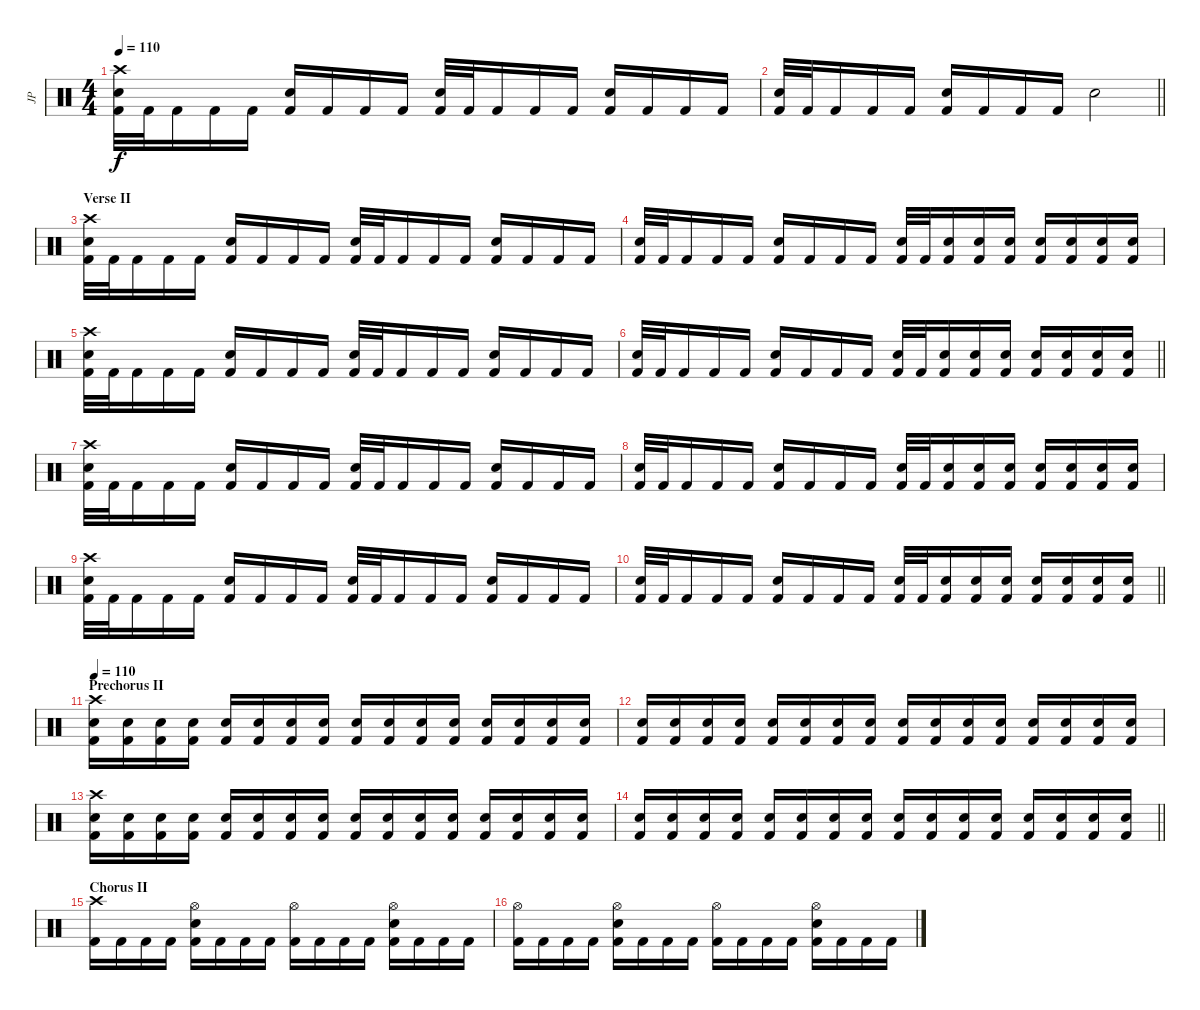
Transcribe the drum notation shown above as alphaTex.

\track ("JP" "JP") {instrument percussion}
\staff {score}
\articulation defaults
\ts (4 4)
\tempo 110
\clef neutral
\ks c
("Crash high (hit)" "Electric Snare (hit)" "Kick (hit) 2").32{dy f} "Kick (hit) 2".32 "Kick (hit) 2".16 "Kick (hit) 2".16 "Kick (hit) 2".16 ("Electric Snare (hit)" "Kick (hit) 2").16 "Kick (hit) 2".16 "Kick (hit) 2".16 "Kick (hit) 2".16 ("Electric Snare (hit)" "Kick (hit) 2").32 "Kick (hit) 2".32 "Kick (hit) 2".16 "Kick (hit) 2".16 "Kick (hit) 2".16 ("Electric Snare (hit)" "Kick (hit) 2").16 "Kick (hit) 2".16 "Kick (hit) 2".16 "Kick (hit) 2".16 |
\barLineRight lightlight
("Electric Snare (hit)" "Kick (hit) 2").32 "Kick (hit) 2".32 "Kick (hit) 2".16 "Kick (hit) 2".16 "Kick (hit) 2".16 ("Electric Snare (hit)" "Kick (hit) 2").16 "Kick (hit) 2".16 "Kick (hit) 2".16 "Kick (hit) 2".16 "Electric Snare (hit)".2 |
\section ("" "Verse II")
("Crash high (hit)" "Electric Snare (hit)" "Kick (hit) 2").32 "Kick (hit) 2".32 "Kick (hit) 2".16 "Kick (hit) 2".16 "Kick (hit) 2".16 ("Electric Snare (hit)" "Kick (hit) 2").16 "Kick (hit) 2".16 "Kick (hit) 2".16 "Kick (hit) 2".16 ("Electric Snare (hit)" "Kick (hit) 2").32 "Kick (hit) 2".32 "Kick (hit) 2".16 "Kick (hit) 2".16 "Kick (hit) 2".16 ("Electric Snare (hit)" "Kick (hit) 2").16 "Kick (hit) 2".16 "Kick (hit) 2".16 "Kick (hit) 2".16 |
("Electric Snare (hit)" "Kick (hit) 2").32 "Kick (hit) 2".32 "Kick (hit) 2".16 "Kick (hit) 2".16 "Kick (hit) 2".16 ("Electric Snare (hit)" "Kick (hit) 2").16 "Kick (hit) 2".16 "Kick (hit) 2".16 "Kick (hit) 2".16 ("Electric Snare (hit)" "Kick (hit) 2").32 "Kick (hit) 2".32 ("Electric Snare (hit)" "Kick (hit) 2").16 ("Electric Snare (hit)" "Kick (hit) 2").16 ("Electric Snare (hit)" "Kick (hit) 2").16 ("Electric Snare (hit)" "Kick (hit) 2").16 ("Electric Snare (hit)" "Kick (hit) 2").16 ("Electric Snare (hit)" "Kick (hit) 2").16 ("Electric Snare (hit)" "Kick (hit) 2").16 |
("Crash high (hit)" "Electric Snare (hit)" "Kick (hit) 2").32 "Kick (hit) 2".32 "Kick (hit) 2".16 "Kick (hit) 2".16 "Kick (hit) 2".16 ("Electric Snare (hit)" "Kick (hit) 2").16 "Kick (hit) 2".16 "Kick (hit) 2".16 "Kick (hit) 2".16 ("Electric Snare (hit)" "Kick (hit) 2").32 "Kick (hit) 2".32 "Kick (hit) 2".16 "Kick (hit) 2".16 "Kick (hit) 2".16 ("Electric Snare (hit)" "Kick (hit) 2").16 "Kick (hit) 2".16 "Kick (hit) 2".16 "Kick (hit) 2".16 |
\barLineRight lightlight
("Electric Snare (hit)" "Kick (hit) 2").32 "Kick (hit) 2".32 "Kick (hit) 2".16 "Kick (hit) 2".16 "Kick (hit) 2".16 ("Electric Snare (hit)" "Kick (hit) 2").16 "Kick (hit) 2".16 "Kick (hit) 2".16 "Kick (hit) 2".16 ("Electric Snare (hit)" "Kick (hit) 2").32 "Kick (hit) 2".32 ("Electric Snare (hit)" "Kick (hit) 2").16 ("Electric Snare (hit)" "Kick (hit) 2").16 ("Electric Snare (hit)" "Kick (hit) 2").16 ("Electric Snare (hit)" "Kick (hit) 2").16 ("Electric Snare (hit)" "Kick (hit) 2").16 ("Electric Snare (hit)" "Kick (hit) 2").16 ("Electric Snare (hit)" "Kick (hit) 2").16 |
("Crash high (hit)" "Electric Snare (hit)" "Kick (hit) 2").32 "Kick (hit) 2".32 "Kick (hit) 2".16 "Kick (hit) 2".16 "Kick (hit) 2".16 ("Electric Snare (hit)" "Kick (hit) 2").16 "Kick (hit) 2".16 "Kick (hit) 2".16 "Kick (hit) 2".16 ("Electric Snare (hit)" "Kick (hit) 2").32 "Kick (hit) 2".32 "Kick (hit) 2".16 "Kick (hit) 2".16 "Kick (hit) 2".16 ("Electric Snare (hit)" "Kick (hit) 2").16 "Kick (hit) 2".16 "Kick (hit) 2".16 "Kick (hit) 2".16 |
("Electric Snare (hit)" "Kick (hit) 2").32 "Kick (hit) 2".32 "Kick (hit) 2".16 "Kick (hit) 2".16 "Kick (hit) 2".16 ("Electric Snare (hit)" "Kick (hit) 2").16 "Kick (hit) 2".16 "Kick (hit) 2".16 "Kick (hit) 2".16 ("Electric Snare (hit)" "Kick (hit) 2").32 "Kick (hit) 2".32 ("Electric Snare (hit)" "Kick (hit) 2").16 ("Electric Snare (hit)" "Kick (hit) 2").16 ("Electric Snare (hit)" "Kick (hit) 2").16 ("Electric Snare (hit)" "Kick (hit) 2").16 ("Electric Snare (hit)" "Kick (hit) 2").16 ("Electric Snare (hit)" "Kick (hit) 2").16 ("Electric Snare (hit)" "Kick (hit) 2").16 |
("Crash high (hit)" "Electric Snare (hit)" "Kick (hit) 2").32 "Kick (hit) 2".32 "Kick (hit) 2".16 "Kick (hit) 2".16 "Kick (hit) 2".16 ("Electric Snare (hit)" "Kick (hit) 2").16 "Kick (hit) 2".16 "Kick (hit) 2".16 "Kick (hit) 2".16 ("Electric Snare (hit)" "Kick (hit) 2").32 "Kick (hit) 2".32 "Kick (hit) 2".16 "Kick (hit) 2".16 "Kick (hit) 2".16 ("Electric Snare (hit)" "Kick (hit) 2").16 "Kick (hit) 2".16 "Kick (hit) 2".16 "Kick (hit) 2".16 |
\barLineRight lightlight
("Electric Snare (hit)" "Kick (hit) 2").32 "Kick (hit) 2".32 "Kick (hit) 2".16 "Kick (hit) 2".16 "Kick (hit) 2".16 ("Electric Snare (hit)" "Kick (hit) 2").16 "Kick (hit) 2".16 "Kick (hit) 2".16 "Kick (hit) 2".16 ("Electric Snare (hit)" "Kick (hit) 2").32 "Kick (hit) 2".32 ("Electric Snare (hit)" "Kick (hit) 2").16 ("Electric Snare (hit)" "Kick (hit) 2").16 ("Electric Snare (hit)" "Kick (hit) 2").16 ("Electric Snare (hit)" "Kick (hit) 2").16 ("Electric Snare (hit)" "Kick (hit) 2").16 ("Electric Snare (hit)" "Kick (hit) 2").16 ("Electric Snare (hit)" "Kick (hit) 2").16 |
\section ("" "Prechorus II")
\tempo 110
("Crash high (hit)" "Electric Snare (hit)" "Kick (hit) 2").16 ("Electric Snare (hit)" "Kick (hit) 2").16 ("Electric Snare (hit)" "Kick (hit) 2").16 ("Electric Snare (hit)" "Kick (hit) 2").16 ("Electric Snare (hit)" "Kick (hit) 2").16 ("Electric Snare (hit)" "Kick (hit) 2").16 ("Electric Snare (hit)" "Kick (hit) 2").16 ("Electric Snare (hit)" "Kick (hit) 2").16 ("Electric Snare (hit)" "Kick (hit) 2").16 ("Electric Snare (hit)" "Kick (hit) 2").16 ("Electric Snare (hit)" "Kick (hit) 2").16 ("Electric Snare (hit)" "Kick (hit) 2").16 ("Electric Snare (hit)" "Kick (hit) 2").16 ("Electric Snare (hit)" "Kick (hit) 2").16 ("Electric Snare (hit)" "Kick (hit) 2").16 ("Electric Snare (hit)" "Kick (hit) 2").16 |
("Electric Snare (hit)" "Kick (hit) 2").16 ("Electric Snare (hit)" "Kick (hit) 2").16 ("Electric Snare (hit)" "Kick (hit) 2").16 ("Electric Snare (hit)" "Kick (hit) 2").16 ("Electric Snare (hit)" "Kick (hit) 2").16 ("Electric Snare (hit)" "Kick (hit) 2").16 ("Electric Snare (hit)" "Kick (hit) 2").16 ("Electric Snare (hit)" "Kick (hit) 2").16 ("Electric Snare (hit)" "Kick (hit) 2").16 ("Electric Snare (hit)" "Kick (hit) 2").16 ("Electric Snare (hit)" "Kick (hit) 2").16 ("Electric Snare (hit)" "Kick (hit) 2").16 ("Electric Snare (hit)" "Kick (hit) 2").16 ("Electric Snare (hit)" "Kick (hit) 2").16 ("Electric Snare (hit)" "Kick (hit) 2").16 ("Electric Snare (hit)" "Kick (hit) 2").16 |
("Crash high (hit)" "Electric Snare (hit)" "Kick (hit) 2").16 ("Electric Snare (hit)" "Kick (hit) 2").16 ("Electric Snare (hit)" "Kick (hit) 2").16 ("Electric Snare (hit)" "Kick (hit) 2").16 ("Electric Snare (hit)" "Kick (hit) 2").16 ("Electric Snare (hit)" "Kick (hit) 2").16 ("Electric Snare (hit)" "Kick (hit) 2").16 ("Electric Snare (hit)" "Kick (hit) 2").16 ("Electric Snare (hit)" "Kick (hit) 2").16 ("Electric Snare (hit)" "Kick (hit) 2").16 ("Electric Snare (hit)" "Kick (hit) 2").16 ("Electric Snare (hit)" "Kick (hit) 2").16 ("Electric Snare (hit)" "Kick (hit) 2").16 ("Electric Snare (hit)" "Kick (hit) 2").16 ("Electric Snare (hit)" "Kick (hit) 2").16 ("Electric Snare (hit)" "Kick (hit) 2").16 |
\barLineRight lightlight
("Electric Snare (hit)" "Kick (hit) 2").16 ("Electric Snare (hit)" "Kick (hit) 2").16 ("Electric Snare (hit)" "Kick (hit) 2").16 ("Electric Snare (hit)" "Kick (hit) 2").16 ("Electric Snare (hit)" "Kick (hit) 2").16 ("Electric Snare (hit)" "Kick (hit) 2").16 ("Electric Snare (hit)" "Kick (hit) 2").16 ("Electric Snare (hit)" "Kick (hit) 2").16 ("Electric Snare (hit)" "Kick (hit) 2").16 ("Electric Snare (hit)" "Kick (hit) 2").16 ("Electric Snare (hit)" "Kick (hit) 2").16 ("Electric Snare (hit)" "Kick (hit) 2").16 ("Electric Snare (hit)" "Kick (hit) 2").16 ("Electric Snare (hit)" "Kick (hit) 2").16 ("Electric Snare (hit)" "Kick (hit) 2").16 ("Electric Snare (hit)" "Kick (hit) 2").16 |
\section ("" "Chorus II")
("Crash high (hit)" "Kick (hit) 2").16 "Kick (hit) 2".16 "Kick (hit) 2".16 "Kick (hit) 2".16 ("Hi-Hat (open)" "Electric Snare (hit)" "Kick (hit) 2").16 "Kick (hit) 2".16 "Kick (hit) 2".16 "Kick (hit) 2".16 ("Hi-Hat (open)" "Kick (hit) 2").16 "Kick (hit) 2".16 "Kick (hit) 2".16 "Kick (hit) 2".16 ("Hi-Hat (open)" "Electric Snare (hit)" "Kick (hit) 2").16 "Kick (hit) 2".16 "Kick (hit) 2".16 "Kick (hit) 2".16 |
("Hi-Hat (open)" "Kick (hit) 2").16 "Kick (hit) 2".16 "Kick (hit) 2".16 "Kick (hit) 2".16 ("Hi-Hat (open)" "Electric Snare (hit)" "Kick (hit) 2").16 "Kick (hit) 2".16 "Kick (hit) 2".16 "Kick (hit) 2".16 ("Hi-Hat (open)" "Kick (hit) 2").16 "Kick (hit) 2".16 "Kick (hit) 2".16 "Kick (hit) 2".16 ("Hi-Hat (open)" "Electric Snare (hit)" "Kick (hit) 2").16 "Kick (hit) 2".16 "Kick (hit) 2".16 "Kick (hit) 2".16
